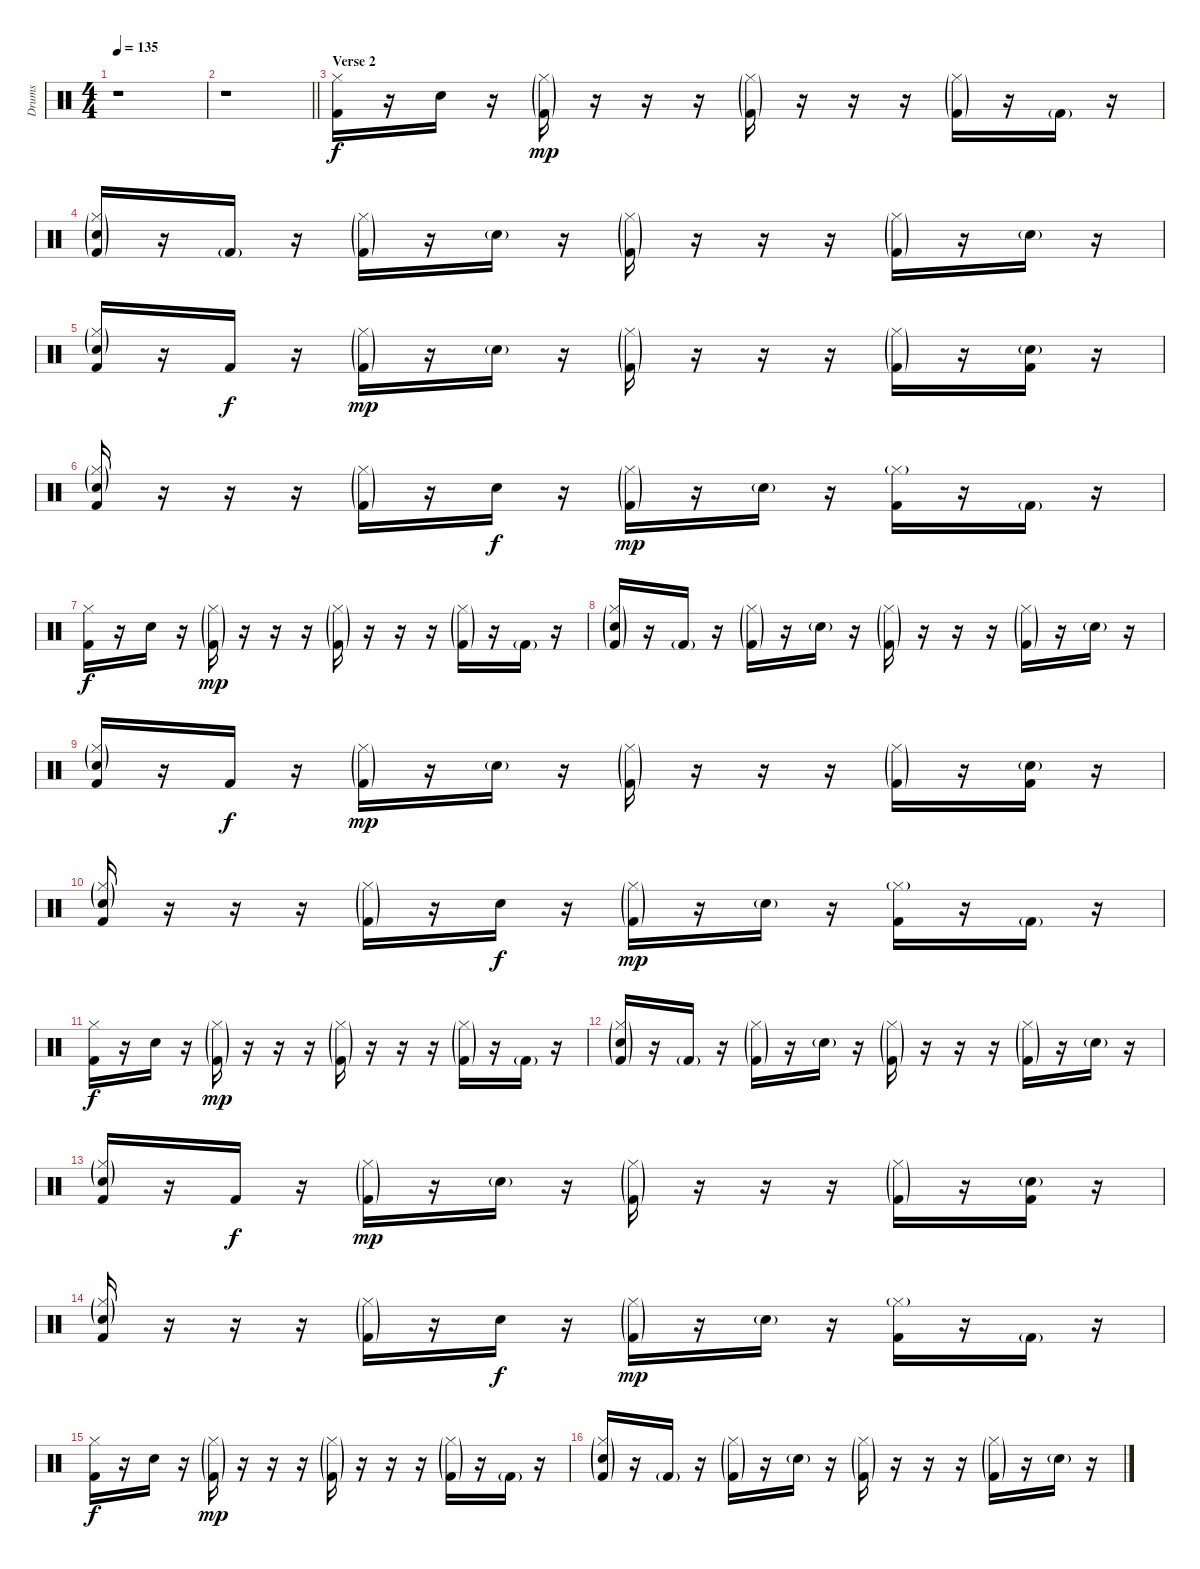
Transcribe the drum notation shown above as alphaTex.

\track ("Drums" "Drums") {instrument percussion}
\staff {score}
\articulation defaults
\ts (4 4)
\tempo 135
\clef neutral
\ks c
r.1{dy mp} |
\barLineRight lightlight
r.1 |
\section ("" "Verse 2")
("Kick (hit) 2" "Hi-Hat (closed)").16{dy f} r.16 "Snare (hit) 2".16 r.16 ("Kick (hit) 2"{g} "Hi-Hat (closed)"{g}).16{dy mp} r.16 r.16 r.16 ("Kick (hit) 2"{g} "Hi-Hat (closed)"{g}).16 r.16 r.16 r.16 ("Kick (hit) 2"{g} "Hi-Hat (closed)"{g}).16 r.16 "Kick (hit) 2"{g}.16 r.16 |
("Kick (hit) 2"{g} "Snare (hit) 2"{g} "Hi-Hat (closed)"{g}).16 r.16 "Kick (hit) 2"{g}.16 r.16 ("Kick (hit) 2"{g} "Hi-Hat (closed)"{g}).16 r.16 "Snare (hit) 2"{g}.16 r.16 ("Kick (hit) 2"{g} "Hi-Hat (closed)"{g}).16 r.16 r.16 r.16 ("Kick (hit) 2"{g} "Hi-Hat (closed)"{g}).16 r.16 "Snare (hit) 2"{g}.16 r.16 |
("Kick (hit) 2" "Snare (hit) 2"{g} "Hi-Hat (closed)"{g}).16 r.16 "Kick (hit) 2".16{dy f} r.16 ("Kick (hit) 2"{g} "Hi-Hat (closed)"{g}).16{dy mp} r.16 "Snare (hit) 2"{g}.16 r.16 ("Kick (hit) 2"{g} "Hi-Hat (closed)"{g}).16 r.16 r.16 r.16 ("Kick (hit) 2"{g} "Hi-Hat (closed)"{g}).16 r.16 ("Kick (hit) 2" "Snare (hit) 2"{g}).16 r.16 |
("Kick (hit) 2" "Snare (hit) 2"{g} "Hi-Hat (closed)"{g}).16 r.16 r.16 r.16 ("Kick (hit) 2"{g} "Hi-Hat (closed)"{g}).16 r.16 "Snare (hit) 2".16{dy f} r.16 ("Kick (hit) 2"{g} "Hi-Hat (closed)"{g}).16{dy mp} r.16 "Snare (hit) 2"{g}.16 r.16 ("Kick (hit) 2" "Hi-Hat (closed)"{g}).16 r.16 "Kick (hit) 2"{g}.16 r.16 |
("Kick (hit) 2" "Hi-Hat (closed)").16{dy f} r.16 "Snare (hit) 2".16 r.16 ("Kick (hit) 2"{g} "Hi-Hat (closed)"{g}).16{dy mp} r.16 r.16 r.16 ("Kick (hit) 2"{g} "Hi-Hat (closed)"{g}).16 r.16 r.16 r.16 ("Kick (hit) 2"{g} "Hi-Hat (closed)"{g}).16 r.16 "Kick (hit) 2"{g}.16 r.16 |
("Kick (hit) 2"{g} "Snare (hit) 2"{g} "Hi-Hat (closed)"{g}).16 r.16 "Kick (hit) 2"{g}.16 r.16 ("Kick (hit) 2"{g} "Hi-Hat (closed)"{g}).16 r.16 "Snare (hit) 2"{g}.16 r.16 ("Kick (hit) 2"{g} "Hi-Hat (closed)"{g}).16 r.16 r.16 r.16 ("Kick (hit) 2"{g} "Hi-Hat (closed)"{g}).16 r.16 "Snare (hit) 2"{g}.16 r.16 |
("Kick (hit) 2" "Snare (hit) 2"{g} "Hi-Hat (closed)"{g}).16 r.16 "Kick (hit) 2".16{dy f} r.16 ("Kick (hit) 2"{g} "Hi-Hat (closed)"{g}).16{dy mp} r.16 "Snare (hit) 2"{g}.16 r.16 ("Kick (hit) 2"{g} "Hi-Hat (closed)"{g}).16 r.16 r.16 r.16 ("Kick (hit) 2"{g} "Hi-Hat (closed)"{g}).16 r.16 ("Kick (hit) 2" "Snare (hit) 2"{g}).16 r.16 |
("Kick (hit) 2" "Snare (hit) 2"{g} "Hi-Hat (closed)"{g}).16 r.16 r.16 r.16 ("Kick (hit) 2"{g} "Hi-Hat (closed)"{g}).16 r.16 "Snare (hit) 2".16{dy f} r.16 ("Kick (hit) 2"{g} "Hi-Hat (closed)"{g}).16{dy mp} r.16 "Snare (hit) 2"{g}.16 r.16 ("Kick (hit) 2" "Hi-Hat (closed)"{g}).16 r.16 "Kick (hit) 2"{g}.16 r.16 |
("Kick (hit) 2" "Hi-Hat (closed)").16{dy f} r.16 "Snare (hit) 2".16 r.16 ("Kick (hit) 2"{g} "Hi-Hat (closed)"{g}).16{dy mp} r.16 r.16 r.16 ("Kick (hit) 2"{g} "Hi-Hat (closed)"{g}).16 r.16 r.16 r.16 ("Kick (hit) 2"{g} "Hi-Hat (closed)"{g}).16 r.16 "Kick (hit) 2"{g}.16 r.16 |
("Kick (hit) 2"{g} "Snare (hit) 2"{g} "Hi-Hat (closed)"{g}).16 r.16 "Kick (hit) 2"{g}.16 r.16 ("Kick (hit) 2"{g} "Hi-Hat (closed)"{g}).16 r.16 "Snare (hit) 2"{g}.16 r.16 ("Kick (hit) 2"{g} "Hi-Hat (closed)"{g}).16 r.16 r.16 r.16 ("Kick (hit) 2"{g} "Hi-Hat (closed)"{g}).16 r.16 "Snare (hit) 2"{g}.16 r.16 |
("Kick (hit) 2" "Snare (hit) 2"{g} "Hi-Hat (closed)"{g}).16 r.16 "Kick (hit) 2".16{dy f} r.16 ("Kick (hit) 2"{g} "Hi-Hat (closed)"{g}).16{dy mp} r.16 "Snare (hit) 2"{g}.16 r.16 ("Kick (hit) 2"{g} "Hi-Hat (closed)"{g}).16 r.16 r.16 r.16 ("Kick (hit) 2"{g} "Hi-Hat (closed)"{g}).16 r.16 ("Kick (hit) 2" "Snare (hit) 2"{g}).16 r.16 |
("Kick (hit) 2" "Snare (hit) 2"{g} "Hi-Hat (closed)"{g}).16 r.16 r.16 r.16 ("Kick (hit) 2"{g} "Hi-Hat (closed)"{g}).16 r.16 "Snare (hit) 2".16{dy f} r.16 ("Kick (hit) 2"{g} "Hi-Hat (closed)"{g}).16{dy mp} r.16 "Snare (hit) 2"{g}.16 r.16 ("Kick (hit) 2" "Hi-Hat (closed)"{g}).16 r.16 "Kick (hit) 2"{g}.16 r.16 |
("Kick (hit) 2" "Hi-Hat (closed)").16{dy f} r.16 "Snare (hit) 2".16 r.16 ("Kick (hit) 2"{g} "Hi-Hat (closed)"{g}).16{dy mp} r.16 r.16 r.16 ("Kick (hit) 2"{g} "Hi-Hat (closed)"{g}).16 r.16 r.16 r.16 ("Kick (hit) 2"{g} "Hi-Hat (closed)"{g}).16 r.16 "Kick (hit) 2"{g}.16 r.16 |
("Kick (hit) 2"{g} "Snare (hit) 2"{g} "Hi-Hat (closed)"{g}).16 r.16 "Kick (hit) 2"{g}.16 r.16 ("Kick (hit) 2"{g} "Hi-Hat (closed)"{g}).16 r.16 "Snare (hit) 2"{g}.16 r.16 ("Kick (hit) 2"{g} "Hi-Hat (closed)"{g}).16 r.16 r.16 r.16 ("Kick (hit) 2"{g} "Hi-Hat (closed)"{g}).16 r.16 "Snare (hit) 2"{g}.16 r.16
